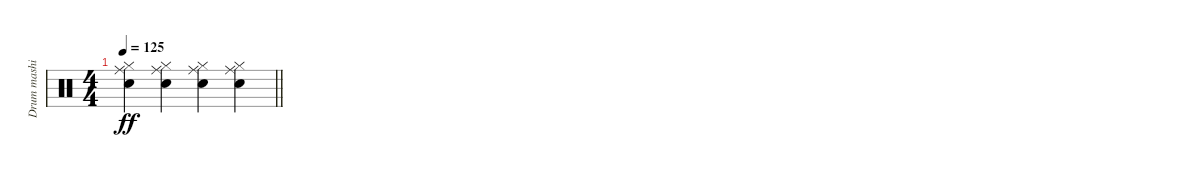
\track ("Drum mashine" "Drum mashi") {instrument percussion}
\staff
\articulation defaults
\ts (4 4)
\tempo 125
\clef neutral
\barLineRight lightlight
\ks c
("Ride (middle)" "Electric Snare (hit)" "Hi-Hat (closed)").4{dy ff} ("Ride (middle)" "Electric Snare (hit)" "Hi-Hat (closed)").4 ("Ride (middle)" "Electric Snare (hit)" "Hi-Hat (closed)").4 ("Ride (middle)" "Electric Snare (hit)" "Hi-Hat (closed)").4
